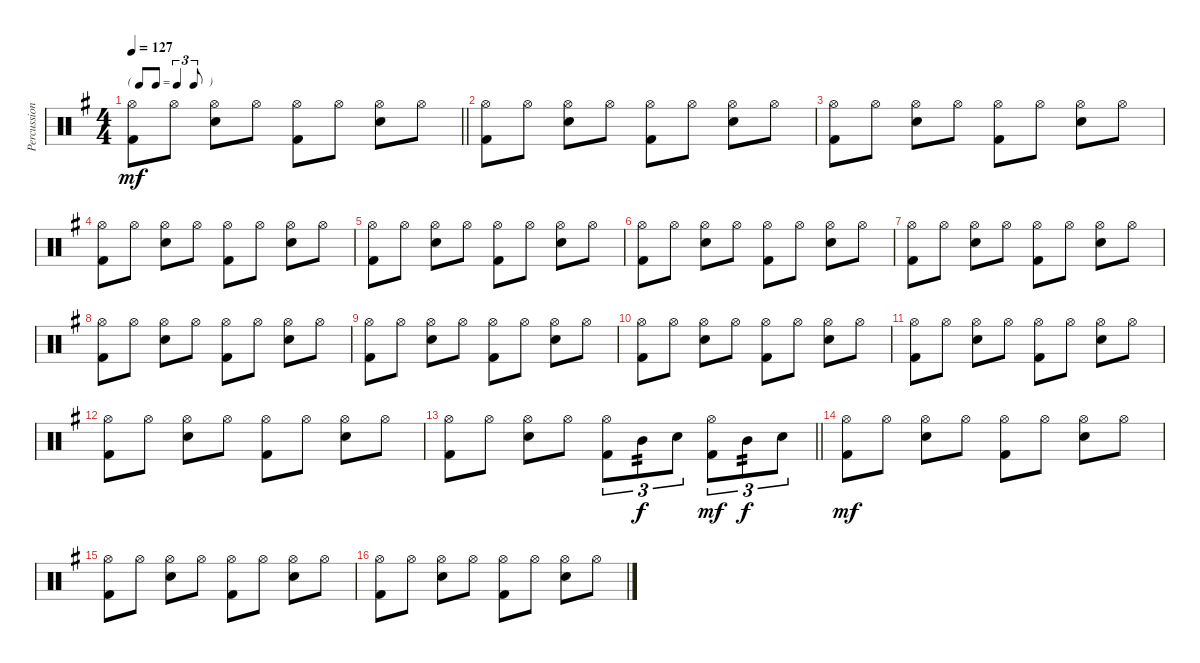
\track ("Percussion" "Percussion") {instrument percussion}
\staff {score}
\articulation defaults
\ts (4 4)
\tf triplet8th
\tempo 127
\clef neutral
\barLineRight lightlight
\ks g
("Hi-Hat (open)" "Kick (hit) 2").8{dy mf} "Hi-Hat (open)".8 ("Hi-Hat (open)" "Snare (hit) 2").8 "Hi-Hat (open)".8 ("Hi-Hat (open)" "Kick (hit) 2").8 "Hi-Hat (open)".8 ("Hi-Hat (open)" "Snare (hit) 2").8 "Hi-Hat (open)".8 |
("Hi-Hat (open)" "Kick (hit) 2").8 "Hi-Hat (open)".8 ("Hi-Hat (open)" "Snare (hit) 2").8 "Hi-Hat (open)".8 ("Hi-Hat (open)" "Kick (hit) 2").8 "Hi-Hat (open)".8 ("Hi-Hat (open)" "Snare (hit) 2").8 "Hi-Hat (open)".8 |
("Hi-Hat (open)" "Kick (hit) 2").8 "Hi-Hat (open)".8 ("Hi-Hat (open)" "Snare (hit) 2").8 "Hi-Hat (open)".8 ("Hi-Hat (open)" "Kick (hit) 2").8 "Hi-Hat (open)".8 ("Hi-Hat (open)" "Snare (hit) 2").8 "Hi-Hat (open)".8 |
("Hi-Hat (open)" "Kick (hit) 2").8 "Hi-Hat (open)".8 ("Hi-Hat (open)" "Snare (hit) 2").8 "Hi-Hat (open)".8 ("Hi-Hat (open)" "Kick (hit) 2").8 "Hi-Hat (open)".8 ("Hi-Hat (open)" "Snare (hit) 2").8 "Hi-Hat (open)".8 |
("Hi-Hat (open)" "Kick (hit) 2").8 "Hi-Hat (open)".8 ("Hi-Hat (open)" "Snare (hit) 2").8 "Hi-Hat (open)".8 ("Hi-Hat (open)" "Kick (hit) 2").8 "Hi-Hat (open)".8 ("Hi-Hat (open)" "Snare (hit) 2").8 "Hi-Hat (open)".8 |
("Hi-Hat (open)" "Kick (hit) 2").8 "Hi-Hat (open)".8 ("Hi-Hat (open)" "Snare (hit) 2").8 "Hi-Hat (open)".8 ("Hi-Hat (open)" "Kick (hit) 2").8 "Hi-Hat (open)".8 ("Hi-Hat (open)" "Snare (hit) 2").8 "Hi-Hat (open)".8 |
("Hi-Hat (open)" "Kick (hit) 2").8 "Hi-Hat (open)".8 ("Hi-Hat (open)" "Snare (hit) 2").8 "Hi-Hat (open)".8 ("Hi-Hat (open)" "Kick (hit) 2").8 "Hi-Hat (open)".8 ("Hi-Hat (open)" "Snare (hit) 2").8 "Hi-Hat (open)".8 |
("Hi-Hat (open)" "Kick (hit) 2").8 "Hi-Hat (open)".8 ("Hi-Hat (open)" "Snare (hit) 2").8 "Hi-Hat (open)".8 ("Hi-Hat (open)" "Kick (hit) 2").8 "Hi-Hat (open)".8 ("Hi-Hat (open)" "Snare (hit) 2").8 "Hi-Hat (open)".8 |
("Hi-Hat (open)" "Kick (hit) 2").8 "Hi-Hat (open)".8 ("Hi-Hat (open)" "Snare (hit) 2").8 "Hi-Hat (open)".8 ("Hi-Hat (open)" "Kick (hit) 2").8 "Hi-Hat (open)".8 ("Hi-Hat (open)" "Snare (hit) 2").8 "Hi-Hat (open)".8 |
("Hi-Hat (open)" "Kick (hit) 2").8 "Hi-Hat (open)".8 ("Hi-Hat (open)" "Snare (hit) 2").8 "Hi-Hat (open)".8 ("Hi-Hat (open)" "Kick (hit) 2").8 "Hi-Hat (open)".8 ("Hi-Hat (open)" "Snare (hit) 2").8 "Hi-Hat (open)".8 |
("Hi-Hat (open)" "Kick (hit) 2").8 "Hi-Hat (open)".8 ("Hi-Hat (open)" "Snare (hit) 2").8 "Hi-Hat (open)".8 ("Hi-Hat (open)" "Kick (hit) 2").8 "Hi-Hat (open)".8 ("Hi-Hat (open)" "Snare (hit) 2").8 "Hi-Hat (open)".8 |
("Hi-Hat (open)" "Kick (hit) 2").8 "Hi-Hat (open)".8 ("Hi-Hat (open)" "Snare (hit) 2").8 "Hi-Hat (open)".8 ("Hi-Hat (open)" "Kick (hit) 2").8 "Hi-Hat (open)".8 ("Hi-Hat (open)" "Snare (hit) 2").8 "Hi-Hat (open)".8 |
\barLineRight lightlight
("Hi-Hat (open)" "Kick (hit) 2").8 "Hi-Hat (open)".8 ("Hi-Hat (open)" "Snare (hit) 2").8 "Hi-Hat (open)".8 ("Hi-Hat (open)" "Kick (hit) 2").8{tu (3 2)} "Mid Tom (hit)".8{tu (3 2) tp 2 dy f} "Snare (hit) 2".8{tu (3 2)} ("Hi-Hat (open)" "Kick (hit) 2").8{tu (3 2) dy mf} "Mid Tom (hit)".8{tu (3 2) tp 2 dy f} "Snare (hit) 2".8{tu (3 2)} |
("Hi-Hat (open)" "Kick (hit) 2").8{dy mf} "Hi-Hat (open)".8 ("Hi-Hat (open)" "Snare (hit) 2").8 "Hi-Hat (open)".8 ("Hi-Hat (open)" "Kick (hit) 2").8 "Hi-Hat (open)".8 ("Hi-Hat (open)" "Snare (hit) 2").8 "Hi-Hat (open)".8 |
("Hi-Hat (open)" "Kick (hit) 2").8 "Hi-Hat (open)".8 ("Hi-Hat (open)" "Snare (hit) 2").8 "Hi-Hat (open)".8 ("Hi-Hat (open)" "Kick (hit) 2").8 "Hi-Hat (open)".8 ("Hi-Hat (open)" "Snare (hit) 2").8 "Hi-Hat (open)".8 |
("Hi-Hat (open)" "Kick (hit) 2").8 "Hi-Hat (open)".8 ("Hi-Hat (open)" "Snare (hit) 2").8 "Hi-Hat (open)".8 ("Hi-Hat (open)" "Kick (hit) 2").8 "Hi-Hat (open)".8 ("Hi-Hat (open)" "Snare (hit) 2").8 "Hi-Hat (open)".8
